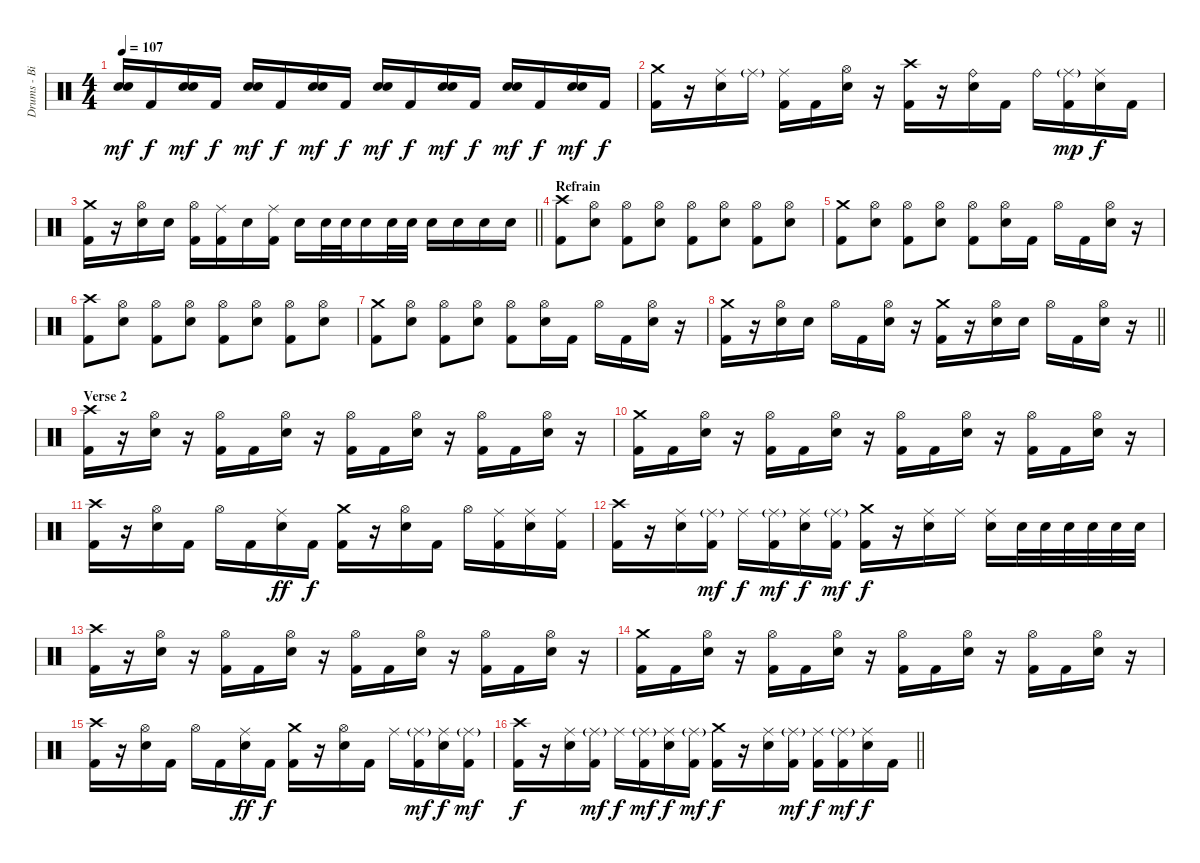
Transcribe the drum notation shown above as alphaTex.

\track ("Drums - Bill Stevenson" "Drums - Bi") {instrument percussion}
\staff {score}
\articulation defaults
\ts (4 4)
\tempo 107
\clef neutral
\ks c
("Electric Snare (hit)" "Electric Snare (hit)").16{dy mf} "Kick (hit) 2".16{dy f} ("Electric Snare (hit)" "Electric Snare (hit)").16{dy mf} "Kick (hit) 2".16{dy f} ("Electric Snare (hit)" "Electric Snare (hit)").16{dy mf} "Kick (hit) 2".16{dy f} ("Electric Snare (hit)" "Electric Snare (hit)").16{dy mf} "Kick (hit) 2".16{dy f} ("Electric Snare (hit)" "Electric Snare (hit)").16{dy mf} "Kick (hit) 2".16{dy f} ("Electric Snare (hit)" "Electric Snare (hit)").16{dy mf} "Kick (hit) 2".16{dy f} ("Electric Snare (hit)" "Electric Snare (hit)").16{dy mf} "Kick (hit) 2".16{dy f} ("Electric Snare (hit)" "Electric Snare (hit)").16{dy mf} "Kick (hit) 2".16{dy f} |
("Crash medium (hit)" "Kick (hit) 2").16 r.16 ("Ride (middle)" "Electric Snare (hit)").16 "Ride (middle)"{g}.16 ("Ride (middle)" "Kick (hit) 2").16 "Kick (hit) 2".16 ("Hi-Hat (open)" "Electric Snare (hit)").16 r.16 ("Crash high (hit)" "Kick (hit) 2").16 r.16 ("Ride (bell)" "Electric Snare (hit)").16 "Kick (hit) 2".16 "Ride (bell)".16 ("Ride (middle)"{g} "Kick (hit) 2").16{dy mp} ("Ride (middle)" "Electric Snare (hit)").16{dy f} "Kick (hit) 2".16 |
\barLineRight lightlight
("Crash medium (hit)" "Kick (hit) 2").16 r.16 ("Hi-Hat (open)" "Electric Snare (hit)").16 "Electric Snare (hit)".16 ("Hi-Hat (open)" "Kick (hit) 2").16 ("Ride (middle)" "Kick (hit) 2").16 "Electric Snare (hit)".16 ("Ride (middle)" "Kick (hit) 2").16 "Electric Snare (hit)".16 "Electric Snare (hit)".32 "Electric Snare (hit)".32 "Electric Snare (hit)".16 "Electric Snare (hit)".32 "Electric Snare (hit)".32 "Electric Snare (hit)".16 "Electric Snare (hit)".16 "Electric Snare (hit)".16 "Electric Snare (hit)".16 |
\section ("" "Refrain")
("Crash high (hit)" "Kick (hit) 2").8 ("Hi-Hat (open)" "Electric Snare (hit)").8 ("Hi-Hat (open)" "Kick (hit) 2").8 ("Hi-Hat (open)" "Electric Snare (hit)").8 ("Hi-Hat (open)" "Kick (hit) 2").8 ("Hi-Hat (open)" "Electric Snare (hit)").8 ("Hi-Hat (open)" "Kick (hit) 2").8 ("Hi-Hat (open)" "Electric Snare (hit)").8 |
("Crash medium (hit)" "Kick (hit) 2").8 ("Hi-Hat (open)" "Electric Snare (hit)").8 ("Hi-Hat (open)" "Kick (hit) 2").8 ("Hi-Hat (open)" "Electric Snare (hit)").8 ("Hi-Hat (open)" "Kick (hit) 2").8 ("Hi-Hat (open)" "Electric Snare (hit)").16 "Kick (hit) 2".16 "Hi-Hat (open)".16 "Kick (hit) 2".16 ("Hi-Hat (open)" "Electric Snare (hit)").16 r.16 |
("Crash high (hit)" "Kick (hit) 2").8 ("Hi-Hat (open)" "Electric Snare (hit)").8 ("Hi-Hat (open)" "Kick (hit) 2").8 ("Hi-Hat (open)" "Electric Snare (hit)").8 ("Hi-Hat (open)" "Kick (hit) 2").8 ("Hi-Hat (open)" "Electric Snare (hit)").8 ("Hi-Hat (open)" "Kick (hit) 2").8 ("Hi-Hat (open)" "Electric Snare (hit)").8 |
("Crash medium (hit)" "Kick (hit) 2").8 ("Hi-Hat (open)" "Electric Snare (hit)").8 ("Hi-Hat (open)" "Kick (hit) 2").8 ("Hi-Hat (open)" "Electric Snare (hit)").8 ("Hi-Hat (open)" "Kick (hit) 2").8 ("Hi-Hat (open)" "Electric Snare (hit)").16 "Kick (hit) 2".16 "Hi-Hat (open)".16 "Kick (hit) 2".16 ("Hi-Hat (open)" "Electric Snare (hit)").16 r.16 |
\barLineRight lightlight
("Crash medium (hit)" "Kick (hit) 2").16 r.16 ("Hi-Hat (open)" "Electric Snare (hit)").16 "Electric Snare (hit)".16 "Hi-Hat (open)".16 "Kick (hit) 2".16 ("Hi-Hat (open)" "Electric Snare (hit)").16 r.16 ("Crash medium (hit)" "Kick (hit) 2").16 r.16 ("Hi-Hat (open)" "Electric Snare (hit)").16 "Electric Snare (hit)".16 "Hi-Hat (open)".16 "Kick (hit) 2".16 ("Hi-Hat (open)" "Electric Snare (hit)").16 r.16 |
\section ("" "Verse 2")
("Crash high (hit)" "Kick (hit) 2").16 r.16 ("Hi-Hat (open)" "Electric Snare (hit)").16 r.16 ("Hi-Hat (open)" "Kick (hit) 2").16 "Kick (hit) 2".16 ("Hi-Hat (open)" "Electric Snare (hit)").16 r.16 ("Hi-Hat (open)" "Kick (hit) 2").16 "Kick (hit) 2".16 ("Hi-Hat (open)" "Electric Snare (hit)").16 r.16 ("Hi-Hat (open)" "Kick (hit) 2").16 "Kick (hit) 2".16 ("Hi-Hat (open)" "Electric Snare (hit)").16 r.16 |
("Crash medium (hit)" "Kick (hit) 2").16 "Kick (hit) 2".16 ("Hi-Hat (open)" "Electric Snare (hit)").16 r.16 ("Hi-Hat (open)" "Kick (hit) 2").16 "Kick (hit) 2".16 ("Hi-Hat (open)" "Electric Snare (hit)").16 r.16 ("Hi-Hat (open)" "Kick (hit) 2").16 "Kick (hit) 2".16 ("Hi-Hat (open)" "Electric Snare (hit)").16 r.16 ("Hi-Hat (open)" "Kick (hit) 2").16 "Kick (hit) 2".16 ("Hi-Hat (open)" "Electric Snare (hit)").16 r.16 |
("Crash high (hit)" "Kick (hit) 2").16 r.16 ("Hi-Hat (open)" "Electric Snare (hit)").16 "Kick (hit) 2".16 "Hi-Hat (open)".16 "Kick (hit) 2".16 ("Ride (middle)" "Electric Snare (hit)").16{dy ff} "Kick (hit) 2".16{dy f} ("Crash medium (hit)" "Kick (hit) 2").16 r.16 ("Hi-Hat (open)" "Electric Snare (hit)").16 "Kick (hit) 2".16 "Hi-Hat (open)".16 ("Ride (middle)" "Kick (hit) 2").16 ("Ride (middle)" "Electric Snare (hit)").16 ("Ride (middle)" "Kick (hit) 2").16 |
("Crash high (hit)" "Kick (hit) 2").16 r.16 ("Ride (middle)" "Electric Snare (hit)").16 ("Ride (middle)"{g} "Kick (hit) 2").16{dy mf} "Ride (middle)".16{dy f} ("Ride (middle)"{g} "Kick (hit) 2").16{dy mf} ("Ride (middle)" "Electric Snare (hit)").16{dy f} ("Ride (middle)"{g} "Kick (hit) 2").16{dy mf} ("Crash medium (hit)" "Kick (hit) 2").16{dy f} r.16 ("Ride (middle)" "Electric Snare (hit)").16 "Ride (middle)".16 ("Ride (middle)" "Electric Snare (hit)").16 "Electric Snare (hit)".32 "Electric Snare (hit)".32 "Electric Snare (hit)".32 "Electric Snare (hit)".32 "Electric Snare (hit)".32 "Electric Snare (hit)".32 |
("Crash high (hit)" "Kick (hit) 2").16 r.16 ("Hi-Hat (open)" "Electric Snare (hit)").16 r.16 ("Hi-Hat (open)" "Kick (hit) 2").16 "Kick (hit) 2".16 ("Hi-Hat (open)" "Electric Snare (hit)").16 r.16 ("Hi-Hat (open)" "Kick (hit) 2").16 "Kick (hit) 2".16 ("Hi-Hat (open)" "Electric Snare (hit)").16 r.16 ("Hi-Hat (open)" "Kick (hit) 2").16 "Kick (hit) 2".16 ("Hi-Hat (open)" "Electric Snare (hit)").16 r.16 |
("Crash medium (hit)" "Kick (hit) 2").16 "Kick (hit) 2".16 ("Hi-Hat (open)" "Electric Snare (hit)").16 r.16 ("Hi-Hat (open)" "Kick (hit) 2").16 "Kick (hit) 2".16 ("Hi-Hat (open)" "Electric Snare (hit)").16 r.16 ("Hi-Hat (open)" "Kick (hit) 2").16 "Kick (hit) 2".16 ("Hi-Hat (open)" "Electric Snare (hit)").16 r.16 ("Hi-Hat (open)" "Kick (hit) 2").16 "Kick (hit) 2".16 ("Hi-Hat (open)" "Electric Snare (hit)").16 r.16 |
("Crash high (hit)" "Kick (hit) 2").16 r.16 ("Hi-Hat (open)" "Electric Snare (hit)").16 "Kick (hit) 2".16 "Hi-Hat (open)".16 "Kick (hit) 2".16 ("Ride (middle)" "Electric Snare (hit)").16{dy ff} "Kick (hit) 2".16{dy f} ("Crash medium (hit)" "Kick (hit) 2").16 r.16 ("Hi-Hat (open)" "Electric Snare (hit)").16 "Kick (hit) 2".16 "Ride (middle)".16 ("Ride (middle)"{g} "Kick (hit) 2").16{dy mf} ("Ride (middle)" "Electric Snare (hit)").16{dy f} ("Ride (middle)"{g} "Kick (hit) 2").16{dy mf} |
\barLineRight lightlight
("Crash high (hit)" "Kick (hit) 2").16{dy f} r.16 ("Ride (middle)" "Electric Snare (hit)").16 ("Ride (middle)"{g} "Kick (hit) 2").16{dy mf} "Ride (middle)".16{dy f} ("Ride (middle)"{g} "Kick (hit) 2").16{dy mf} ("Ride (middle)" "Electric Snare (hit)").16{dy f} ("Ride (middle)"{g} "Kick (hit) 2").16{dy mf} ("Crash medium (hit)" "Kick (hit) 2").16{dy f} r.16 ("Ride (middle)" "Electric Snare (hit)").16 ("Ride (middle)"{g} "Kick (hit) 2").16{dy mf} ("Ride (middle)" "Kick (hit) 2").16{dy f} ("Ride (middle)"{g} "Kick (hit) 2").16{dy mf} ("Ride (middle)" "Electric Snare (hit)").16{dy f} "Kick (hit) 2".16
